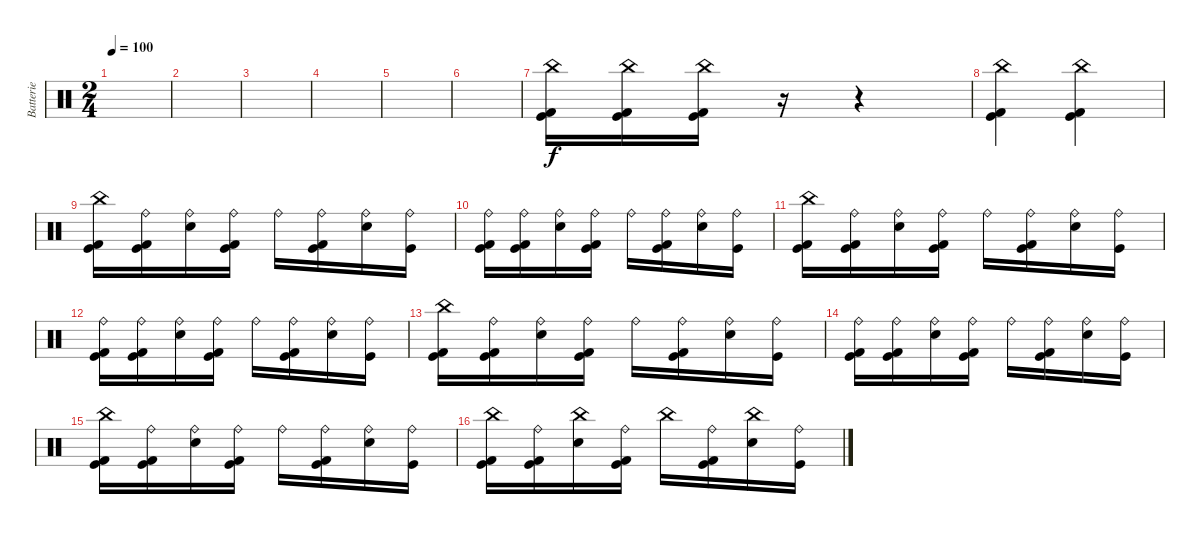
\track ("Batterie" "Batterie") {instrument percussion}
\staff {score}
\articulation defaults
\ts (2 4)
\tempo 100
\clef neutral
\ks c
|
|
|
|
|
|
("China (hit)" "Kick (hit) 2" "Kick (hit)").16 ("China (hit)" "Kick (hit) 2" "Kick (hit)").16 ("China (hit)" "Kick (hit)" "Kick (hit) 2").16 r.16 r.4 |
("China (hit)" "Kick (hit) 2" "Kick (hit)").4 ("China (hit)" "Kick (hit)" "Kick (hit) 2").4 |
("China (hit)" "Kick (hit)" "Kick (hit) 2").16 ("Ride (bell)" "Kick (hit) 2" "Kick (hit)").16 ("Ride (bell)" "Electric Snare (hit)").16 ("Ride (bell)" "Kick (hit)" "Kick (hit) 2").16 "Ride (bell)".16 ("Ride (bell)" "Kick (hit)" "Kick (hit) 2").16 ("Ride (bell)" "Electric Snare (hit)").16 ("Ride (bell)" "Kick (hit)").16 |
("Ride (bell)" "Kick (hit)" "Kick (hit) 2").16 ("Ride (bell)" "Kick (hit) 2" "Kick (hit)").16 ("Ride (bell)" "Electric Snare (hit)").16 ("Ride (bell)" "Kick (hit)" "Kick (hit) 2").16 "Ride (bell)".16 ("Ride (bell)" "Kick (hit)" "Kick (hit) 2").16 ("Ride (bell)" "Electric Snare (hit)").16 ("Ride (bell)" "Kick (hit)").16 |
("China (hit)" "Kick (hit)" "Kick (hit) 2").16 ("Ride (bell)" "Kick (hit) 2" "Kick (hit)").16 ("Ride (bell)" "Electric Snare (hit)").16 ("Ride (bell)" "Kick (hit)" "Kick (hit) 2").16 "Ride (bell)".16 ("Ride (bell)" "Kick (hit)" "Kick (hit) 2").16 ("Ride (bell)" "Electric Snare (hit)").16 ("Ride (bell)" "Kick (hit)").16 |
("Ride (bell)" "Kick (hit)" "Kick (hit) 2").16 ("Ride (bell)" "Kick (hit) 2" "Kick (hit)").16 ("Ride (bell)" "Electric Snare (hit)").16 ("Ride (bell)" "Kick (hit)" "Kick (hit) 2").16 "Ride (bell)".16 ("Ride (bell)" "Kick (hit)" "Kick (hit) 2").16 ("Ride (bell)" "Electric Snare (hit)").16 ("Ride (bell)" "Kick (hit)").16 |
("China (hit)" "Kick (hit)" "Kick (hit) 2").16 ("Ride (bell)" "Kick (hit) 2" "Kick (hit)").16 ("Ride (bell)" "Electric Snare (hit)").16 ("Ride (bell)" "Kick (hit)" "Kick (hit) 2").16 "Ride (bell)".16 ("Ride (bell)" "Kick (hit)" "Kick (hit) 2").16 ("Ride (bell)" "Electric Snare (hit)").16 ("Ride (bell)" "Kick (hit)").16 |
("Ride (bell)" "Kick (hit)" "Kick (hit) 2").16 ("Ride (bell)" "Kick (hit) 2" "Kick (hit)").16 ("Ride (bell)" "Electric Snare (hit)").16 ("Ride (bell)" "Kick (hit)" "Kick (hit) 2").16 "Ride (bell)".16 ("Ride (bell)" "Kick (hit)" "Kick (hit) 2").16 ("Ride (bell)" "Electric Snare (hit)").16 ("Ride (bell)" "Kick (hit)").16 |
("China (hit)" "Kick (hit)" "Kick (hit) 2").16 ("Ride (bell)" "Kick (hit) 2" "Kick (hit)").16 ("Ride (bell)" "Electric Snare (hit)").16 ("Ride (bell)" "Kick (hit)" "Kick (hit) 2").16 "Ride (bell)".16 ("Ride (bell)" "Kick (hit)" "Kick (hit) 2").16 ("Ride (bell)" "Electric Snare (hit)").16 ("Ride (bell)" "Kick (hit)").16 |
("China (hit)" "Kick (hit)" "Kick (hit) 2").16 ("Ride (bell)" "Kick (hit) 2" "Kick (hit)").16 ("China (hit)" "Electric Snare (hit)").16 ("Ride (bell)" "Kick (hit)" "Kick (hit) 2").16 "China (hit)".16 ("Ride (bell)" "Kick (hit)" "Kick (hit) 2").16 ("China (hit)" "Electric Snare (hit)").16 ("Ride (bell)" "Kick (hit)").16
